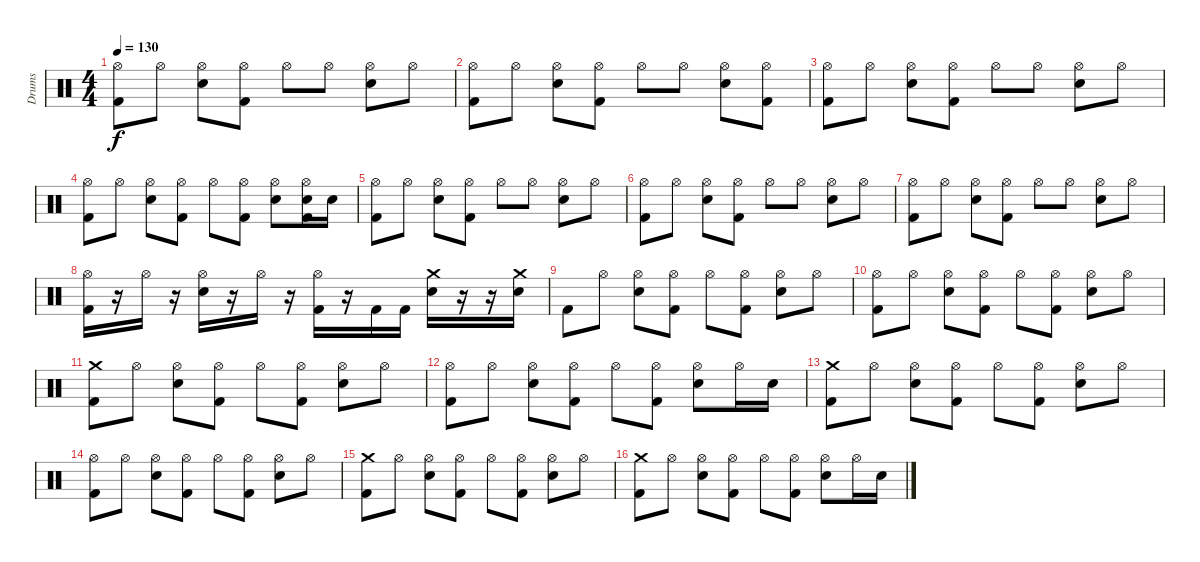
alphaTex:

\track ("Drums" "Drums") {instrument percussion}
\staff {score}
\articulation defaults
\ts (4 4)
\tempo 130
\clef neutral
\ks c
("Hi-Hat (open)" "Kick (hit) 2").8{dy f} "Hi-Hat (open)".8 ("Hi-Hat (open)" "Electric Snare (hit)").8 ("Hi-Hat (open)" "Kick (hit) 2").8 "Hi-Hat (open)".8 "Hi-Hat (open)".8 ("Hi-Hat (open)" "Electric Snare (hit)").8 "Hi-Hat (open)".8 |
("Hi-Hat (open)" "Kick (hit) 2").8 "Hi-Hat (open)".8 ("Hi-Hat (open)" "Electric Snare (hit)").8 ("Hi-Hat (open)" "Kick (hit) 2").8 "Hi-Hat (open)".8 "Hi-Hat (open)".8 ("Hi-Hat (open)" "Electric Snare (hit)").8 ("Hi-Hat (open)" "Kick (hit) 2").8 |
("Hi-Hat (open)" "Kick (hit) 2").8 "Hi-Hat (open)".8 ("Hi-Hat (open)" "Electric Snare (hit)").8 ("Hi-Hat (open)" "Kick (hit) 2").8 "Hi-Hat (open)".8 "Hi-Hat (open)".8 ("Hi-Hat (open)" "Electric Snare (hit)").8 "Hi-Hat (open)".8 |
("Hi-Hat (open)" "Kick (hit) 2").8 "Hi-Hat (open)".8 ("Hi-Hat (open)" "Electric Snare (hit)").8 ("Hi-Hat (open)" "Kick (hit) 2").8 "Hi-Hat (open)".8 ("Hi-Hat (open)" "Kick (hit) 2").8 ("Hi-Hat (open)" "Electric Snare (hit)").8 ("Hi-Hat (open)" "Electric Snare (hit)" "Kick (hit) 2").16 "Electric Snare (hit)".16 |
("Hi-Hat (open)" "Kick (hit) 2").8 "Hi-Hat (open)".8 ("Hi-Hat (open)" "Electric Snare (hit)").8 ("Hi-Hat (open)" "Kick (hit) 2").8 "Hi-Hat (open)".8 "Hi-Hat (open)".8 ("Hi-Hat (open)" "Electric Snare (hit)").8 "Hi-Hat (open)".8 |
("Hi-Hat (open)" "Kick (hit) 2").8 "Hi-Hat (open)".8 ("Hi-Hat (open)" "Electric Snare (hit)").8 ("Hi-Hat (open)" "Kick (hit) 2").8 "Hi-Hat (open)".8 "Hi-Hat (open)".8 ("Hi-Hat (open)" "Electric Snare (hit)").8 "Hi-Hat (open)".8 |
("Hi-Hat (open)" "Kick (hit) 2").8 "Hi-Hat (open)".8 ("Hi-Hat (open)" "Electric Snare (hit)").8 ("Hi-Hat (open)" "Kick (hit) 2").8 "Hi-Hat (open)".8 "Hi-Hat (open)".8 ("Hi-Hat (open)" "Electric Snare (hit)").8 "Hi-Hat (open)".8 |
("Hi-Hat (open)" "Kick (hit) 2").16 r.16 "Hi-Hat (open)".16 r.16 ("Hi-Hat (open)" "Electric Snare (hit)").16 r.16 "Hi-Hat (open)".16 r.16 ("Hi-Hat (open)" "Kick (hit) 2").16 r.16 "Kick (hit) 2".16 "Kick (hit) 2".16 ("Crash medium (hit)" "Electric Snare (hit)").16 r.16 r.16 ("Crash medium (hit)" "Electric Snare (hit)").16 |
"Kick (hit) 2".8 "Hi-Hat (open)".8 ("Hi-Hat (open)" "Electric Snare (hit)").8 ("Hi-Hat (open)" "Kick (hit) 2").8 "Hi-Hat (open)".8 ("Hi-Hat (open)" "Kick (hit) 2").8 ("Hi-Hat (open)" "Electric Snare (hit)").8 "Hi-Hat (open)".8 |
("Hi-Hat (open)" "Kick (hit) 2").8 "Hi-Hat (open)".8 ("Hi-Hat (open)" "Electric Snare (hit)").8 ("Hi-Hat (open)" "Kick (hit) 2").8 "Hi-Hat (open)".8 ("Hi-Hat (open)" "Kick (hit) 2").8 ("Hi-Hat (open)" "Electric Snare (hit)").8 "Hi-Hat (open)".8 |
("Crash medium (hit)" "Kick (hit) 2").8 "Hi-Hat (open)".8 ("Hi-Hat (open)" "Electric Snare (hit)").8 ("Hi-Hat (open)" "Kick (hit) 2").8 "Hi-Hat (open)".8 ("Hi-Hat (open)" "Kick (hit) 2").8 ("Hi-Hat (open)" "Electric Snare (hit)").8 "Hi-Hat (open)".8 |
("Hi-Hat (open)" "Kick (hit) 2").8 "Hi-Hat (open)".8 ("Hi-Hat (open)" "Electric Snare (hit)").8 ("Hi-Hat (open)" "Kick (hit) 2").8 "Hi-Hat (open)".8 ("Hi-Hat (open)" "Kick (hit) 2").8 ("Hi-Hat (open)" "Electric Snare (hit)").8 "Hi-Hat (open)".16 "Electric Snare (hit)".16 |
("Crash medium (hit)" "Kick (hit) 2").8 "Hi-Hat (open)".8 ("Hi-Hat (open)" "Electric Snare (hit)").8 ("Hi-Hat (open)" "Kick (hit) 2").8 "Hi-Hat (open)".8 ("Hi-Hat (open)" "Kick (hit) 2").8 ("Hi-Hat (open)" "Electric Snare (hit)").8 "Hi-Hat (open)".8 |
("Hi-Hat (open)" "Kick (hit) 2").8 "Hi-Hat (open)".8 ("Hi-Hat (open)" "Electric Snare (hit)").8 ("Hi-Hat (open)" "Kick (hit) 2").8 "Hi-Hat (open)".8 ("Hi-Hat (open)" "Kick (hit) 2").8 ("Hi-Hat (open)" "Electric Snare (hit)").8 "Hi-Hat (open)".8 |
("Crash medium (hit)" "Kick (hit) 2").8 "Hi-Hat (open)".8 ("Hi-Hat (open)" "Electric Snare (hit)").8 ("Hi-Hat (open)" "Kick (hit) 2").8 "Hi-Hat (open)".8 ("Hi-Hat (open)" "Kick (hit) 2").8 ("Hi-Hat (open)" "Electric Snare (hit)").8 "Hi-Hat (open)".8 |
("Crash medium (hit)" "Kick (hit) 2").8 "Hi-Hat (open)".8 ("Hi-Hat (open)" "Electric Snare (hit)").8 ("Hi-Hat (open)" "Kick (hit) 2").8 "Hi-Hat (open)".8 ("Hi-Hat (open)" "Kick (hit) 2").8 ("Hi-Hat (open)" "Electric Snare (hit)").8 "Hi-Hat (open)".16 "Electric Snare (hit)".16
